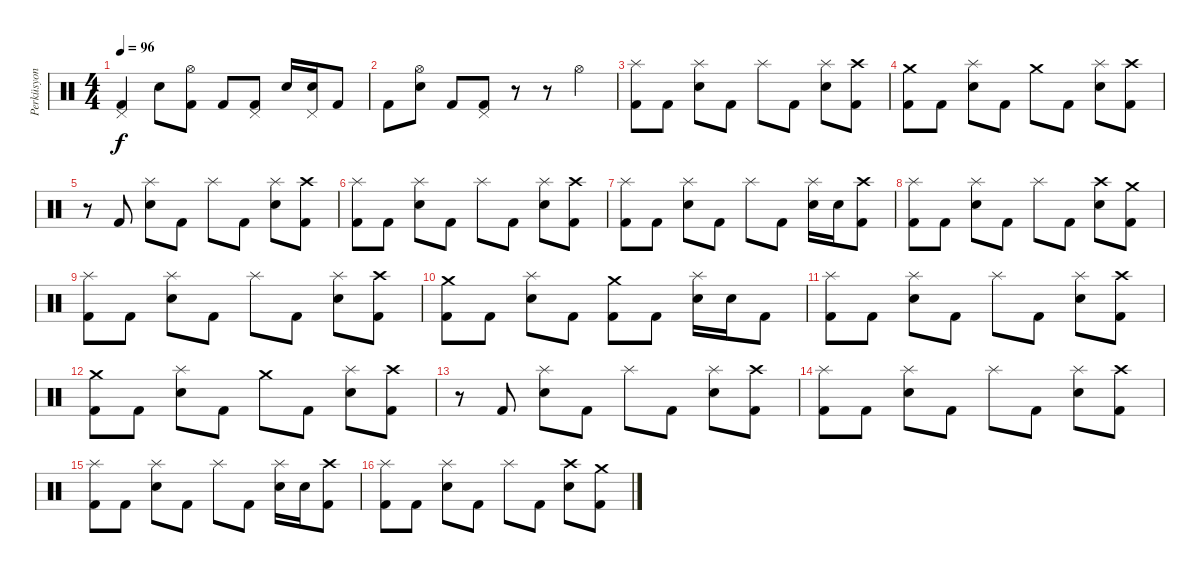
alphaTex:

\track ("Perküsyon" "Perküsyon") {instrument percussion}
\staff {score}
\articulation defaults
\ts (4 4)
\tempo 96
\clef neutral
\ks c
("Kick (hit) 2" "Pedal Hi-Hat (hit)").4{dy f} "Snare (hit) 2".8 ("Kick (hit) 2" "Hi-Hat (open)").8 "Kick (hit) 2".8 ("Kick (hit) 2" "Pedal Hi-Hat (hit)").8 "Snare (hit) 2".16 ("Snare (hit) 2" "Pedal Hi-Hat (hit)").16 "Kick (hit) 2".8 |
"Kick (hit) 2".8 ("Snare (hit) 2" "Hi-Hat (open)").8 "Kick (hit) 2".8 ("Kick (hit) 2" "Pedal Hi-Hat (hit)").8 r.8 r.8 "Hi-Hat (open)".4 |
("Kick (hit) 2" "Splash (hit)").8 "Kick (hit) 2".8 ("Snare (hit) 2" "Splash (hit)").8 "Kick (hit) 2".8 "Splash (hit)".8 "Kick (hit) 2".8 ("Snare (hit) 2" "Splash (hit)").8 ("Kick (hit) 2" "Crash high (hit)").8 |
("Kick (hit) 2" "Crash medium (hit)").8 "Kick (hit) 2".8 ("Snare (hit) 2" "Splash (hit)").8 "Kick (hit) 2".8 "Crash medium (hit)".8 "Kick (hit) 2".8 ("Snare (hit) 2" "Splash (hit)").8 ("Kick (hit) 2" "Crash high (hit)").8 |
r.8 "Kick (hit) 2".8 ("Snare (hit) 2" "Splash (hit)").8 "Kick (hit) 2".8 "Splash (hit)".8 "Kick (hit) 2".8 ("Snare (hit) 2" "Splash (hit)").8 ("Kick (hit) 2" "Crash high (hit)").8 |
("Kick (hit) 2" "Splash (hit)").8 "Kick (hit) 2".8 ("Snare (hit) 2" "Splash (hit)").8 "Kick (hit) 2".8 "Splash (hit)".8 "Kick (hit) 2".8 ("Snare (hit) 2" "Splash (hit)").8 ("Kick (hit) 2" "Crash high (hit)").8 |
("Kick (hit) 2" "Splash (hit)").8 "Kick (hit) 2".8 ("Snare (hit) 2" "Splash (hit)").8 "Kick (hit) 2".8 "Splash (hit)".8 "Kick (hit) 2".8 ("Snare (hit) 2" "Splash (hit)").16 "Snare (hit) 2".16 ("Kick (hit) 2" "Crash high (hit)").8 |
("Kick (hit) 2" "Splash (hit)").8 "Kick (hit) 2".8 ("Snare (hit) 2" "Splash (hit)").8 "Kick (hit) 2".8 "Splash (hit)".8 "Kick (hit) 2".8 ("Snare (hit) 2" "Crash high (hit)").8 ("Kick (hit) 2" "Crash medium (hit)").8 |
("Kick (hit) 2" "Splash (hit)").8 "Kick (hit) 2".8 ("Snare (hit) 2" "Splash (hit)").8 "Kick (hit) 2".8 "Splash (hit)".8 "Kick (hit) 2".8 ("Snare (hit) 2" "Splash (hit)").8 ("Kick (hit) 2" "Crash high (hit)").8 |
("Kick (hit) 2" "Crash medium (hit)").8 "Kick (hit) 2".8 ("Snare (hit) 2" "Splash (hit)").8 "Kick (hit) 2".8 ("Kick (hit) 2" "Crash medium (hit)").8 "Kick (hit) 2".8 ("Snare (hit) 2" "Splash (hit)").16 "Snare (hit) 2".16 "Kick (hit) 2".8 |
("Kick (hit) 2" "Splash (hit)").8 "Kick (hit) 2".8 ("Snare (hit) 2" "Splash (hit)").8 "Kick (hit) 2".8 "Splash (hit)".8 "Kick (hit) 2".8 ("Snare (hit) 2" "Splash (hit)").8 ("Kick (hit) 2" "Crash high (hit)").8 |
("Kick (hit) 2" "Crash medium (hit)").8 "Kick (hit) 2".8 ("Snare (hit) 2" "Splash (hit)").8 "Kick (hit) 2".8 "Crash medium (hit)".8 "Kick (hit) 2".8 ("Snare (hit) 2" "Splash (hit)").8 ("Kick (hit) 2" "Crash high (hit)").8 |
r.8 "Kick (hit) 2".8 ("Snare (hit) 2" "Splash (hit)").8 "Kick (hit) 2".8 "Splash (hit)".8 "Kick (hit) 2".8 ("Snare (hit) 2" "Splash (hit)").8 ("Kick (hit) 2" "Crash high (hit)").8 |
("Kick (hit) 2" "Splash (hit)").8 "Kick (hit) 2".8 ("Snare (hit) 2" "Splash (hit)").8 "Kick (hit) 2".8 "Splash (hit)".8 "Kick (hit) 2".8 ("Snare (hit) 2" "Splash (hit)").8 ("Kick (hit) 2" "Crash high (hit)").8 |
("Kick (hit) 2" "Splash (hit)").8 "Kick (hit) 2".8 ("Snare (hit) 2" "Splash (hit)").8 "Kick (hit) 2".8 "Splash (hit)".8 "Kick (hit) 2".8 ("Snare (hit) 2" "Splash (hit)").16 "Snare (hit) 2".16 ("Kick (hit) 2" "Crash high (hit)").8 |
("Kick (hit) 2" "Splash (hit)").8 "Kick (hit) 2".8 ("Snare (hit) 2" "Splash (hit)").8 "Kick (hit) 2".8 "Splash (hit)".8 "Kick (hit) 2".8 ("Snare (hit) 2" "Crash high (hit)").8 ("Kick (hit) 2" "Crash medium (hit)").8
